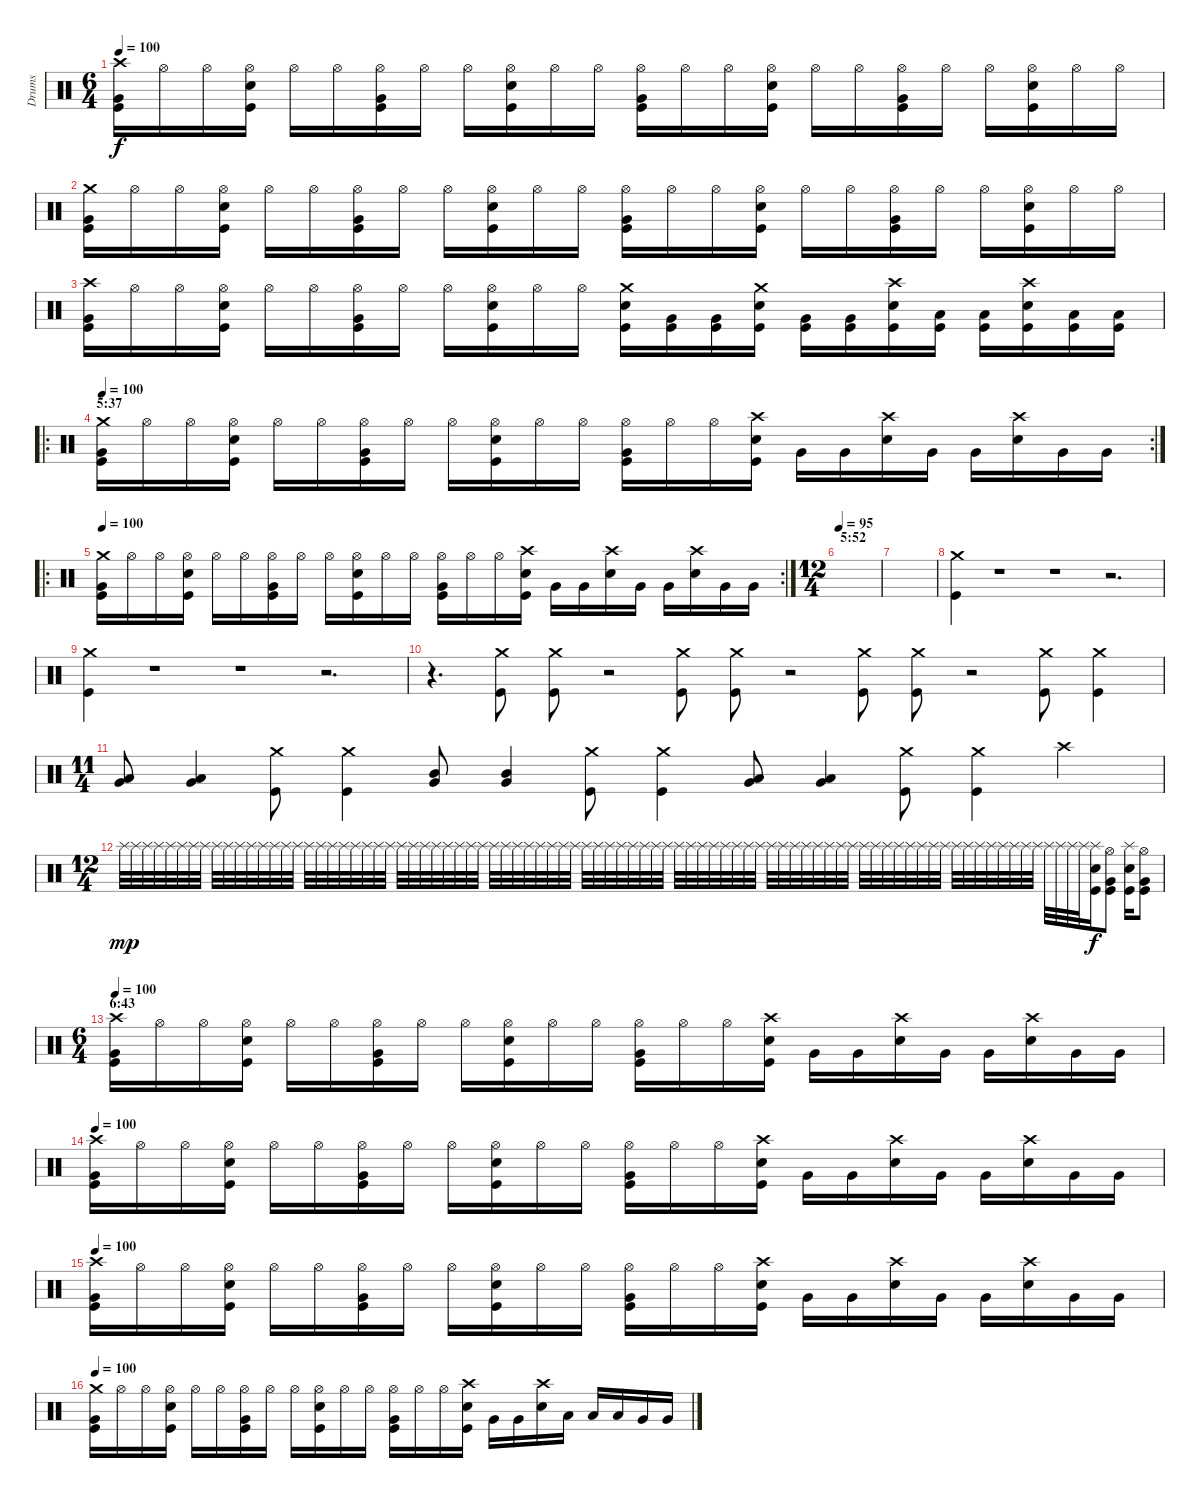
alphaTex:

\track ("Drums" "Drums") {instrument percussion}
\staff {score}
\articulation defaults
\ts (6 4)
\tempo 100
\clef neutral
\ks c
("Crash high (hit)" "Very Low Tom (hit)" "Kick (hit)").16{dy f} "Hi-Hat (open)".16 "Hi-Hat (open)".16 ("Hi-Hat (open)" "Snare (hit) 2" "Kick (hit)").16 "Hi-Hat (open)".16 "Hi-Hat (open)".16 ("Hi-Hat (open)" "Very Low Tom (hit)" "Kick (hit)").16 "Hi-Hat (open)".16 "Hi-Hat (open)".16 ("Hi-Hat (open)" "Snare (hit) 2" "Kick (hit)").16 "Hi-Hat (open)".16 "Hi-Hat (open)".16 ("Hi-Hat (open)" "Very Low Tom (hit)" "Kick (hit)").16 "Hi-Hat (open)".16 "Hi-Hat (open)".16 ("Hi-Hat (open)" "Snare (hit) 2" "Kick (hit)").16 "Hi-Hat (open)".16 "Hi-Hat (open)".16 ("Hi-Hat (open)" "Very Low Tom (hit)" "Kick (hit)").16 "Hi-Hat (open)".16 "Hi-Hat (open)".16 ("Hi-Hat (open)" "Snare (hit) 2" "Kick (hit)").16 "Hi-Hat (open)".16 "Hi-Hat (open)".16 |
("Crash medium (hit)" "Very Low Tom (hit)" "Kick (hit)").16 "Hi-Hat (open)".16 "Hi-Hat (open)".16 ("Hi-Hat (open)" "Snare (hit) 2" "Kick (hit)").16 "Hi-Hat (open)".16 "Hi-Hat (open)".16 ("Hi-Hat (open)" "Very Low Tom (hit)" "Kick (hit)").16 "Hi-Hat (open)".16 "Hi-Hat (open)".16 ("Hi-Hat (open)" "Snare (hit) 2" "Kick (hit)").16 "Hi-Hat (open)".16 "Hi-Hat (open)".16 ("Hi-Hat (open)" "Very Low Tom (hit)" "Kick (hit)").16 "Hi-Hat (open)".16 "Hi-Hat (open)".16 ("Hi-Hat (open)" "Snare (hit) 2" "Kick (hit)").16 "Hi-Hat (open)".16 "Hi-Hat (open)".16 ("Hi-Hat (open)" "Very Low Tom (hit)" "Kick (hit)").16 "Hi-Hat (open)".16 "Hi-Hat (open)".16 ("Hi-Hat (open)" "Snare (hit) 2" "Kick (hit)").16 "Hi-Hat (open)".16 "Hi-Hat (open)".16 |
("Crash high (hit)" "Very Low Tom (hit)" "Kick (hit)").16 "Hi-Hat (open)".16 "Hi-Hat (open)".16 ("Hi-Hat (open)" "Snare (hit) 2" "Kick (hit)").16 "Hi-Hat (open)".16 "Hi-Hat (open)".16 ("Hi-Hat (open)" "Very Low Tom (hit)" "Kick (hit)").16 "Hi-Hat (open)".16 "Hi-Hat (open)".16 ("Hi-Hat (open)" "Snare (hit) 2" "Kick (hit)").16 "Hi-Hat (open)".16 "Hi-Hat (open)".16 ("Crash medium (hit)" "Snare (hit) 2" "Kick (hit)").16 ("Very Low Tom (hit)" "Kick (hit)").16 ("Very Low Tom (hit)" "Kick (hit)").16 ("Crash medium (hit)" "Snare (hit) 2" "Kick (hit)").16 ("Very Low Tom (hit)" "Kick (hit)").16 ("Very Low Tom (hit)" "Kick (hit)").16 ("Crash high (hit)" "Snare (hit) 2" "Kick (hit)").16 ("Low Tom (hit)" "Kick (hit)").16 ("Low Tom (hit)" "Kick (hit)").16 ("Crash high (hit)" "Snare (hit) 2" "Kick (hit)").16 ("Low Tom (hit)" "Kick (hit)").16 ("Low Tom (hit)" "Kick (hit)").16 |
\ro
\rc 2
\section ("" "5:37")
\tempo 100
("Crash medium (hit)" "Very Low Tom (hit)" "Kick (hit)").16 "Hi-Hat (open)".16 "Hi-Hat (open)".16 ("Hi-Hat (open)" "Snare (hit) 2" "Kick (hit)").16 "Hi-Hat (open)".16 "Hi-Hat (open)".16 ("Hi-Hat (open)" "Very Low Tom (hit)" "Kick (hit)").16 "Hi-Hat (open)".16 "Hi-Hat (open)".16 ("Hi-Hat (open)" "Snare (hit) 2" "Kick (hit)").16 "Hi-Hat (open)".16 "Hi-Hat (open)".16 ("Hi-Hat (open)" "Very Low Tom (hit)" "Kick (hit)").16 "Hi-Hat (open)".16 "Hi-Hat (open)".16 ("Crash high (hit)" "Snare (hit) 2" "Kick (hit)").16 "Very Low Tom (hit)".16 "Very Low Tom (hit)".16 ("Crash high (hit)" "Snare (hit) 2").16 "Very Low Tom (hit)".16 "Very Low Tom (hit)".16 ("Crash high (hit)" "Snare (hit) 2").16 "Very Low Tom (hit)".16 "Very Low Tom (hit)".16 |
\ro
\rc 2
\tempo 100
("Crash medium (hit)" "Very Low Tom (hit)" "Kick (hit)").16 "Hi-Hat (open)".16 "Hi-Hat (open)".16 ("Hi-Hat (open)" "Snare (hit) 2" "Kick (hit)").16 "Hi-Hat (open)".16 "Hi-Hat (open)".16 ("Hi-Hat (open)" "Very Low Tom (hit)" "Kick (hit)").16 "Hi-Hat (open)".16 "Hi-Hat (open)".16 ("Hi-Hat (open)" "Snare (hit) 2" "Kick (hit)").16 "Hi-Hat (open)".16 "Hi-Hat (open)".16 ("Hi-Hat (open)" "Very Low Tom (hit)" "Kick (hit)").16 "Hi-Hat (open)".16 "Hi-Hat (open)".16 ("Crash high (hit)" "Snare (hit) 2" "Kick (hit)").16 "Very Low Tom (hit)".16 "Very Low Tom (hit)".16 ("Crash high (hit)" "Snare (hit) 2").16 "Very Low Tom (hit)".16 "Very Low Tom (hit)".16 ("Crash high (hit)" "Snare (hit) 2").16 "Very Low Tom (hit)".16 "Very Low Tom (hit)".16 |
\ts (12 4)
\section ("" "5:52")
\tempo 95
|
|
("Crash medium (hit)" "Kick (hit)").4 r.1 r.1 r.2{d} |
("Crash medium (hit)" "Kick (hit)").4 r.1 r.1 r.2{d} |
r.4{d} ("Crash medium (hit)" "Kick (hit)").8 ("Crash medium (hit)" "Kick (hit)").8 r.2 ("Crash medium (hit)" "Kick (hit)").8 ("Crash medium (hit)" "Kick (hit)").8 r.2 ("Crash medium (hit)" "Kick (hit)").8 ("Crash medium (hit)" "Kick (hit)").8 r.2 ("Crash medium (hit)" "Kick (hit)").8 ("Crash medium (hit)" "Kick (hit)").4 |
\ts (11 4)
("Very Low Tom (hit)" "Low Tom (hit)").8 ("Very Low Tom (hit)" "Low Tom (hit)").4 ("Crash medium (hit)" "Kick (hit)").8 ("Crash medium (hit)" "Kick (hit)").4 ("Mid Tom (hit)" "Very Low Tom (hit)").8 ("Mid Tom (hit)" "Very Low Tom (hit)").4 ("Crash medium (hit)" "Kick (hit)").8 ("Crash medium (hit)" "Kick (hit)").4 ("Very Low Tom (hit)" "Low Tom (hit)").8 ("Very Low Tom (hit)" "Low Tom (hit)").4 ("Crash medium (hit)" "Kick (hit)").8 ("Crash medium (hit)" "Kick (hit)").4 "Crash high (hit)".2 |
\ts (12 4)
"Splash (hit)".32{dy mp volume 0} "Splash (hit)".32{volume 15} "Splash (hit)".32 "Splash (hit)".32 "Splash (hit)".32 "Splash (hit)".32 "Splash (hit)".32 "Splash (hit)".32 "Splash (hit)".32 "Splash (hit)".32 "Splash (hit)".32 "Splash (hit)".32 "Splash (hit)".32 "Splash (hit)".32 "Splash (hit)".32 "Splash (hit)".32 "Splash (hit)".32 "Splash (hit)".32 "Splash (hit)".32 "Splash (hit)".32 "Splash (hit)".32 "Splash (hit)".32 "Splash (hit)".32 "Splash (hit)".32 "Splash (hit)".32 "Splash (hit)".32 "Splash (hit)".32 "Splash (hit)".32 "Splash (hit)".32 "Splash (hit)".32 "Splash (hit)".32 "Splash (hit)".32 "Splash (hit)".32 "Splash (hit)".32 "Splash (hit)".32 "Splash (hit)".32 "Splash (hit)".32 "Splash (hit)".32 "Splash (hit)".32 "Splash (hit)".32 "Splash (hit)".32 "Splash (hit)".32 "Splash (hit)".32 "Splash (hit)".32 "Splash (hit)".32 "Splash (hit)".32 "Splash (hit)".32 "Splash (hit)".32 "Splash (hit)".32 "Splash (hit)".32 "Splash (hit)".32 "Splash (hit)".32 "Splash (hit)".32 "Splash (hit)".32 "Splash (hit)".32 "Splash (hit)".32 "Splash (hit)".32 "Splash (hit)".32 "Splash (hit)".32 "Splash (hit)".32 "Splash (hit)".32 "Splash (hit)".32 "Splash (hit)".32 "Splash (hit)".32 "Splash (hit)".32 "Splash (hit)".32 "Splash (hit)".32 "Splash (hit)".32 "Splash (hit)".32 "Splash (hit)".32 "Splash (hit)".32 "Splash (hit)".32 "Splash (hit)".32 "Splash (hit)".32 "Splash (hit)".32 "Splash (hit)".32 "Splash (hit)".32 "Splash (hit)".32 "Splash (hit)".32 "Splash (hit)".32 "Splash (hit)".32 "Splash (hit)".32 "Splash (hit)".32 "Splash (hit)".32 ("Splash (hit)" "Snare (hit) 2" "Kick (hit)").16{dy f} ("Hi-Hat (open)" "Very Low Tom (hit)" "Kick (hit)").8 ("Splash (hit)" "Snare (hit) 2" "Kick (hit)").16 ("Hi-Hat (open)" "Very Low Tom (hit)" "Kick (hit)").8 |
\ts (6 4)
\section ("" "6:43")
\tempo 100
("Crash high (hit)" "Very Low Tom (hit)" "Kick (hit)").16 "Hi-Hat (open)".16 "Hi-Hat (open)".16 ("Hi-Hat (open)" "Snare (hit) 2" "Kick (hit)").16 "Hi-Hat (open)".16 "Hi-Hat (open)".16 ("Hi-Hat (open)" "Very Low Tom (hit)" "Kick (hit)").16 "Hi-Hat (open)".16 "Hi-Hat (open)".16 ("Hi-Hat (open)" "Snare (hit) 2" "Kick (hit)").16 "Hi-Hat (open)".16 "Hi-Hat (open)".16 ("Hi-Hat (open)" "Very Low Tom (hit)" "Kick (hit)").16 "Hi-Hat (open)".16 "Hi-Hat (open)".16 ("Crash high (hit)" "Snare (hit) 2" "Kick (hit)").16 "Very Low Tom (hit)".16 "Very Low Tom (hit)".16 ("Crash high (hit)" "Snare (hit) 2").16 "Very Low Tom (hit)".16 "Very Low Tom (hit)".16 ("Crash high (hit)" "Snare (hit) 2").16 "Very Low Tom (hit)".16 "Very Low Tom (hit)".16 |
\tempo 100
("Crash high (hit)" "Very Low Tom (hit)" "Kick (hit)").16 "Hi-Hat (open)".16 "Hi-Hat (open)".16 ("Hi-Hat (open)" "Snare (hit) 2" "Kick (hit)").16 "Hi-Hat (open)".16 "Hi-Hat (open)".16 ("Hi-Hat (open)" "Very Low Tom (hit)" "Kick (hit)").16 "Hi-Hat (open)".16 "Hi-Hat (open)".16 ("Hi-Hat (open)" "Snare (hit) 2" "Kick (hit)").16 "Hi-Hat (open)".16 "Hi-Hat (open)".16 ("Hi-Hat (open)" "Very Low Tom (hit)" "Kick (hit)").16 "Hi-Hat (open)".16 "Hi-Hat (open)".16 ("Crash high (hit)" "Snare (hit) 2" "Kick (hit)").16 "Very Low Tom (hit)".16 "Very Low Tom (hit)".16 ("Crash high (hit)" "Snare (hit) 2").16 "Very Low Tom (hit)".16 "Very Low Tom (hit)".16 ("Crash high (hit)" "Snare (hit) 2").16 "Very Low Tom (hit)".16 "Very Low Tom (hit)".16 |
\tempo 100
("Crash high (hit)" "Very Low Tom (hit)" "Kick (hit)").16 "Hi-Hat (open)".16 "Hi-Hat (open)".16 ("Hi-Hat (open)" "Snare (hit) 2" "Kick (hit)").16 "Hi-Hat (open)".16 "Hi-Hat (open)".16 ("Hi-Hat (open)" "Very Low Tom (hit)" "Kick (hit)").16 "Hi-Hat (open)".16 "Hi-Hat (open)".16 ("Hi-Hat (open)" "Snare (hit) 2" "Kick (hit)").16 "Hi-Hat (open)".16 "Hi-Hat (open)".16 ("Hi-Hat (open)" "Very Low Tom (hit)" "Kick (hit)").16 "Hi-Hat (open)".16 "Hi-Hat (open)".16 ("Crash high (hit)" "Snare (hit) 2" "Kick (hit)").16 "Very Low Tom (hit)".16 "Very Low Tom (hit)".16 ("Crash high (hit)" "Snare (hit) 2").16 "Very Low Tom (hit)".16 "Very Low Tom (hit)".16 ("Crash high (hit)" "Snare (hit) 2").16 "Very Low Tom (hit)".16 "Very Low Tom (hit)".16 |
\tempo 100
("Crash medium (hit)" "Very Low Tom (hit)" "Kick (hit)").16 "Hi-Hat (open)".16 "Hi-Hat (open)".16 ("Hi-Hat (open)" "Snare (hit) 2" "Kick (hit)").16 "Hi-Hat (open)".16 "Hi-Hat (open)".16 ("Hi-Hat (open)" "Very Low Tom (hit)" "Kick (hit)").16 "Hi-Hat (open)".16 "Hi-Hat (open)".16 ("Hi-Hat (open)" "Snare (hit) 2" "Kick (hit)").16 "Hi-Hat (open)".16 "Hi-Hat (open)".16 ("Hi-Hat (open)" "Very Low Tom (hit)" "Kick (hit)").16 "Hi-Hat (open)".16 "Hi-Hat (open)".16 ("Crash high (hit)" "Snare (hit) 2" "Kick (hit)").16 "Very Low Tom (hit)".16 "Very Low Tom (hit)".16 ("Crash high (hit)" "Snare (hit) 2").16 "Low Tom (hit)".16 "Low Tom (hit)".16 "Low Tom (hit)".16 "Very Low Tom (hit)".16 "Very Low Tom (hit)".16
